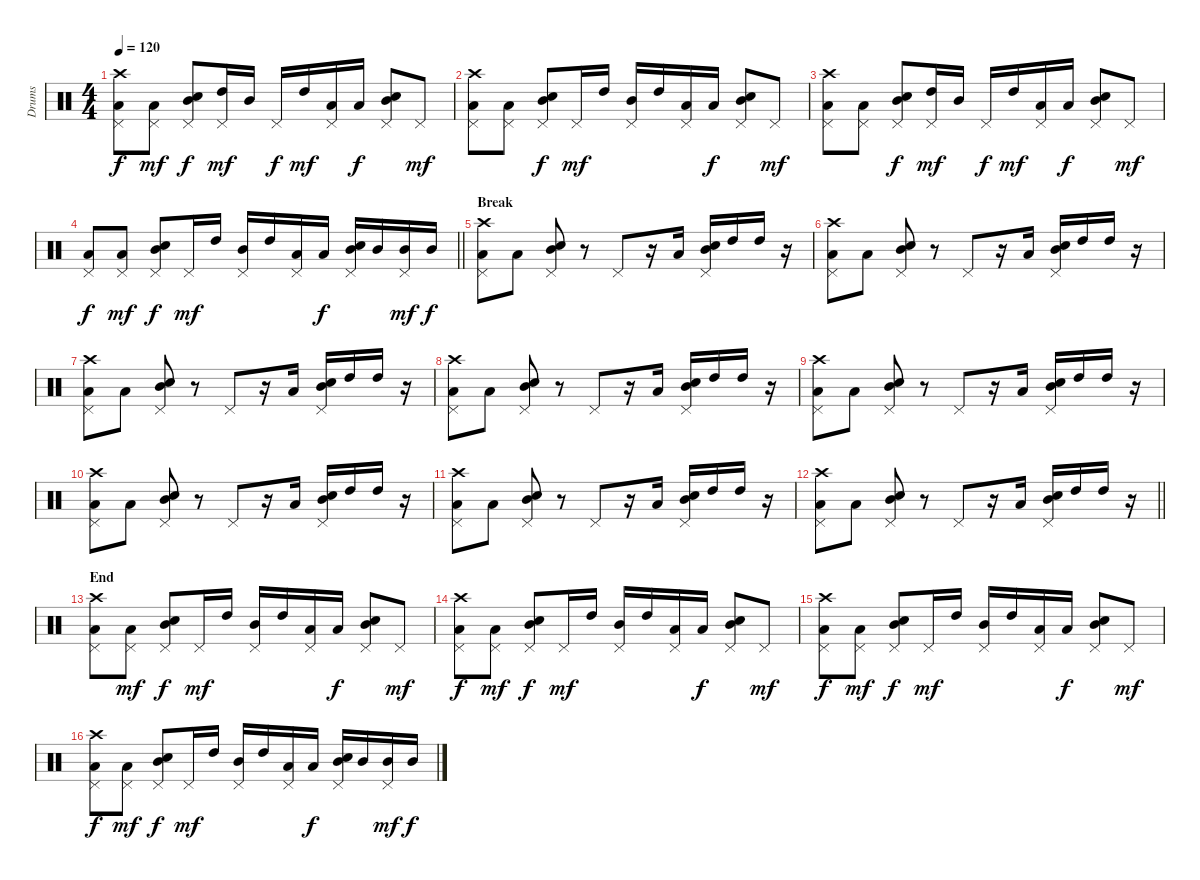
\track ("Drums" "Drums") {instrument percussion}
\staff {score}
\articulation defaults
\ts (4 4)
\tempo 120
\clef neutral
\ks c
("Crash high (hit)" "Pedal Hi-Hat (hit)" "Low Tom (hit)").8{dy f} ("Pedal Hi-Hat (hit)" "Low Tom (hit)").8{dy mf} ("Pedal Hi-Hat (hit)" "Mid Tom (hit)" "Electric Snare (hit)").8{dy f} ("Pedal Hi-Hat (hit)" "High Tom (hit)").16{dy mf} "Mid Tom (hit)".16 "Pedal Hi-Hat (hit)".16{dy f} "High Tom (hit)".16{dy mf} ("Pedal Hi-Hat (hit)" "Low Tom (hit)").16 "Low Tom (hit)".16{dy f} ("Pedal Hi-Hat (hit)" "Mid Tom (hit)" "Electric Snare (hit)").8 "Pedal Hi-Hat (hit)".8{dy mf} |
("Crash high (hit)" "Pedal Hi-Hat (hit)" "Low Tom (hit)").8 ("Pedal Hi-Hat (hit)" "Low Tom (hit)").8 ("Pedal Hi-Hat (hit)" "Mid Tom (hit)" "Electric Snare (hit)").8{dy f} "Pedal Hi-Hat (hit)".16{dy mf} "High Tom (hit)".16 ("Pedal Hi-Hat (hit)" "Mid Tom (hit)").16 "High Tom (hit)".16 ("Pedal Hi-Hat (hit)" "Low Tom (hit)").16 "Low Tom (hit)".16{dy f} ("Pedal Hi-Hat (hit)" "Mid Tom (hit)" "Electric Snare (hit)").8 "Pedal Hi-Hat (hit)".8{dy mf} |
("Crash high (hit)" "Pedal Hi-Hat (hit)" "Low Tom (hit)").8 ("Pedal Hi-Hat (hit)" "Low Tom (hit)").8 ("Pedal Hi-Hat (hit)" "Mid Tom (hit)" "Electric Snare (hit)").8{dy f} ("Pedal Hi-Hat (hit)" "High Tom (hit)").16{dy mf} "Mid Tom (hit)".16 "Pedal Hi-Hat (hit)".16{dy f} "High Tom (hit)".16{dy mf} ("Pedal Hi-Hat (hit)" "Low Tom (hit)").16 "Low Tom (hit)".16{dy f} ("Pedal Hi-Hat (hit)" "Mid Tom (hit)" "Electric Snare (hit)").8 "Pedal Hi-Hat (hit)".8{dy mf} |
\barLineRight lightlight
("Pedal Hi-Hat (hit)" "Low Tom (hit)").8{dy f} ("Pedal Hi-Hat (hit)" "Low Tom (hit)").8{dy mf} ("Pedal Hi-Hat (hit)" "Mid Tom (hit)" "Electric Snare (hit)").8{dy f} "Pedal Hi-Hat (hit)".16{dy mf} "High Tom (hit)".16 ("Pedal Hi-Hat (hit)" "Mid Tom (hit)").16 "High Tom (hit)".16 ("Pedal Hi-Hat (hit)" "Low Tom (hit)").16 "Low Tom (hit)".16{dy f} ("Pedal Hi-Hat (hit)" "Mid Tom (hit)" "Electric Snare (hit)").16 "Mid Tom (hit)".16 ("Pedal Hi-Hat (hit)" "Mid Tom (hit)").16{dy mf} "Mid Tom (hit)".16{dy f} |
\section ("" "Break")
("Crash high (hit)" "Pedal Hi-Hat (hit)" "Low Tom (hit)").8 "Low Tom (hit)".8 ("Pedal Hi-Hat (hit)" "Mid Tom (hit)" "Electric Snare (hit)").8 r.8 "Pedal Hi-Hat (hit)".8 r.16 "Low Tom (hit)".16 ("Pedal Hi-Hat (hit)" "Mid Tom (hit)" "Electric Snare (hit)").16 "High Tom (hit)".16 "High Tom (hit)".16 r.16 |
("Crash high (hit)" "Pedal Hi-Hat (hit)" "Low Tom (hit)").8 "Low Tom (hit)".8 ("Pedal Hi-Hat (hit)" "Mid Tom (hit)" "Electric Snare (hit)").8 r.8 "Pedal Hi-Hat (hit)".8 r.16 "Low Tom (hit)".16 ("Pedal Hi-Hat (hit)" "Mid Tom (hit)" "Electric Snare (hit)").16 "High Tom (hit)".16 "High Tom (hit)".16 r.16 |
("Crash high (hit)" "Pedal Hi-Hat (hit)" "Low Tom (hit)").8 "Low Tom (hit)".8 ("Pedal Hi-Hat (hit)" "Mid Tom (hit)" "Electric Snare (hit)").8 r.8 "Pedal Hi-Hat (hit)".8 r.16 "Low Tom (hit)".16 ("Pedal Hi-Hat (hit)" "Mid Tom (hit)" "Electric Snare (hit)").16 "High Tom (hit)".16 "High Tom (hit)".16 r.16 |
("Crash high (hit)" "Pedal Hi-Hat (hit)" "Low Tom (hit)").8 "Low Tom (hit)".8 ("Pedal Hi-Hat (hit)" "Mid Tom (hit)" "Electric Snare (hit)").8 r.8 "Pedal Hi-Hat (hit)".8 r.16 "Low Tom (hit)".16 ("Pedal Hi-Hat (hit)" "Mid Tom (hit)" "Electric Snare (hit)").16 "High Tom (hit)".16 "High Tom (hit)".16 r.16 |
("Crash high (hit)" "Pedal Hi-Hat (hit)" "Low Tom (hit)").8 "Low Tom (hit)".8 ("Pedal Hi-Hat (hit)" "Mid Tom (hit)" "Electric Snare (hit)").8 r.8 "Pedal Hi-Hat (hit)".8 r.16 "Low Tom (hit)".16 ("Pedal Hi-Hat (hit)" "Mid Tom (hit)" "Electric Snare (hit)").16 "High Tom (hit)".16 "High Tom (hit)".16 r.16 |
("Crash high (hit)" "Pedal Hi-Hat (hit)" "Low Tom (hit)").8 "Low Tom (hit)".8 ("Pedal Hi-Hat (hit)" "Mid Tom (hit)" "Electric Snare (hit)").8 r.8 "Pedal Hi-Hat (hit)".8 r.16 "Low Tom (hit)".16 ("Pedal Hi-Hat (hit)" "Mid Tom (hit)" "Electric Snare (hit)").16 "High Tom (hit)".16 "High Tom (hit)".16 r.16 |
("Crash high (hit)" "Pedal Hi-Hat (hit)" "Low Tom (hit)").8 "Low Tom (hit)".8 ("Pedal Hi-Hat (hit)" "Mid Tom (hit)" "Electric Snare (hit)").8 r.8 "Pedal Hi-Hat (hit)".8 r.16 "Low Tom (hit)".16 ("Pedal Hi-Hat (hit)" "Mid Tom (hit)" "Electric Snare (hit)").16 "High Tom (hit)".16 "High Tom (hit)".16 r.16 |
\barLineRight lightlight
("Crash high (hit)" "Pedal Hi-Hat (hit)" "Low Tom (hit)").8 "Low Tom (hit)".8 ("Pedal Hi-Hat (hit)" "Mid Tom (hit)" "Electric Snare (hit)").8 r.8 "Pedal Hi-Hat (hit)".8 r.16 "Low Tom (hit)".16 ("Pedal Hi-Hat (hit)" "Mid Tom (hit)" "Electric Snare (hit)").16 "High Tom (hit)".16 "High Tom (hit)".16 r.16 |
\section ("" "End")
("Crash high (hit)" "Pedal Hi-Hat (hit)" "Low Tom (hit)").8 ("Pedal Hi-Hat (hit)" "Low Tom (hit)").8{dy mf} ("Pedal Hi-Hat (hit)" "Mid Tom (hit)" "Electric Snare (hit)").8{dy f} "Pedal Hi-Hat (hit)".16{dy mf} "High Tom (hit)".16 ("Pedal Hi-Hat (hit)" "Mid Tom (hit)").16 "High Tom (hit)".16 ("Pedal Hi-Hat (hit)" "Low Tom (hit)").16 "Low Tom (hit)".16{dy f} ("Pedal Hi-Hat (hit)" "Mid Tom (hit)" "Electric Snare (hit)").8 "Pedal Hi-Hat (hit)".8{dy mf} |
("Crash high (hit)" "Pedal Hi-Hat (hit)" "Low Tom (hit)").8{dy f} ("Pedal Hi-Hat (hit)" "Low Tom (hit)").8{dy mf} ("Pedal Hi-Hat (hit)" "Mid Tom (hit)" "Electric Snare (hit)").8{dy f} "Pedal Hi-Hat (hit)".16{dy mf} "High Tom (hit)".16 ("Pedal Hi-Hat (hit)" "Mid Tom (hit)").16 "High Tom (hit)".16 ("Pedal Hi-Hat (hit)" "Low Tom (hit)").16 "Low Tom (hit)".16{dy f} ("Pedal Hi-Hat (hit)" "Mid Tom (hit)" "Electric Snare (hit)").8 "Pedal Hi-Hat (hit)".8{dy mf} |
("Crash high (hit)" "Pedal Hi-Hat (hit)" "Low Tom (hit)").8{dy f} ("Pedal Hi-Hat (hit)" "Low Tom (hit)").8{dy mf} ("Pedal Hi-Hat (hit)" "Mid Tom (hit)" "Electric Snare (hit)").8{dy f} "Pedal Hi-Hat (hit)".16{dy mf} "High Tom (hit)".16 ("Pedal Hi-Hat (hit)" "Mid Tom (hit)").16 "High Tom (hit)".16 ("Pedal Hi-Hat (hit)" "Low Tom (hit)").16 "Low Tom (hit)".16{dy f} ("Pedal Hi-Hat (hit)" "Mid Tom (hit)" "Electric Snare (hit)").8 "Pedal Hi-Hat (hit)".8{dy mf} |
("Crash high (hit)" "Pedal Hi-Hat (hit)" "Low Tom (hit)").8{dy f} ("Pedal Hi-Hat (hit)" "Low Tom (hit)").8{dy mf} ("Pedal Hi-Hat (hit)" "Mid Tom (hit)" "Electric Snare (hit)").8{dy f} "Pedal Hi-Hat (hit)".16{dy mf} "High Tom (hit)".16 ("Pedal Hi-Hat (hit)" "Mid Tom (hit)").16 "High Tom (hit)".16 ("Pedal Hi-Hat (hit)" "Low Tom (hit)").16 "Low Tom (hit)".16{dy f} ("Pedal Hi-Hat (hit)" "Mid Tom (hit)" "Electric Snare (hit)").16 "Mid Tom (hit)".16 ("Pedal Hi-Hat (hit)" "Mid Tom (hit)").16{dy mf} "Mid Tom (hit)".16{dy f}
